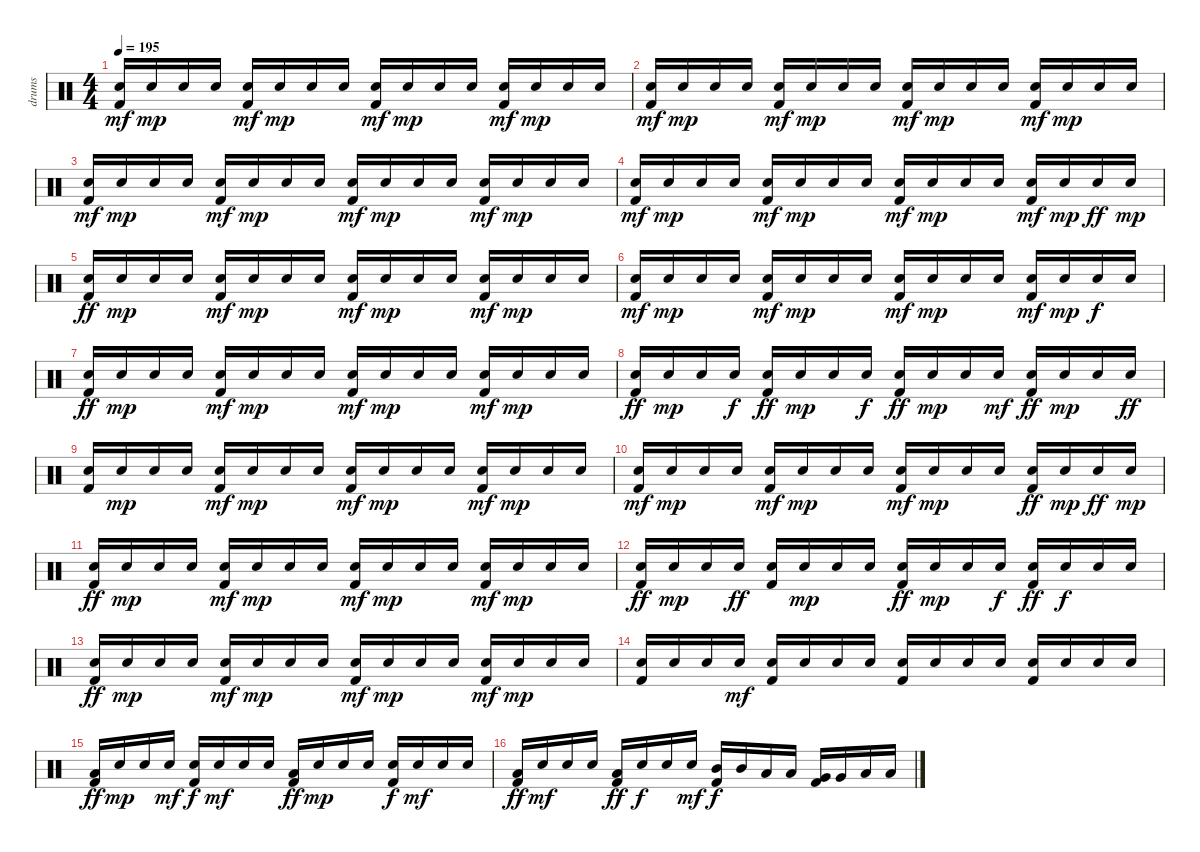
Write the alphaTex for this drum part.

\track ("drums" "drums") {instrument percussion}
\staff {score}
\articulation defaults
\ts (4 4)
\tempo 195
\clef neutral
\ks c
("Electric Snare (hit)" "Kick (hit) 2").16{dy mf} "Electric Snare (hit)".16{dy mp} "Electric Snare (hit)".16 "Electric Snare (hit)".16 ("Electric Snare (hit)" "Kick (hit) 2").16{dy mf} "Electric Snare (hit)".16{dy mp} "Electric Snare (hit)".16 "Electric Snare (hit)".16 ("Electric Snare (hit)" "Kick (hit) 2").16{dy mf} "Electric Snare (hit)".16{dy mp} "Electric Snare (hit)".16 "Electric Snare (hit)".16 ("Electric Snare (hit)" "Kick (hit) 2").16{dy mf} "Electric Snare (hit)".16{dy mp} "Electric Snare (hit)".16 "Electric Snare (hit)".16 |
("Electric Snare (hit)" "Kick (hit) 2").16{dy mf} "Electric Snare (hit)".16{dy mp} "Electric Snare (hit)".16 "Electric Snare (hit)".16 ("Electric Snare (hit)" "Kick (hit) 2").16{dy mf} "Electric Snare (hit)".16{dy mp} "Electric Snare (hit)".16 "Electric Snare (hit)".16 ("Electric Snare (hit)" "Kick (hit) 2").16{dy mf} "Electric Snare (hit)".16{dy mp} "Electric Snare (hit)".16 "Electric Snare (hit)".16 ("Electric Snare (hit)" "Kick (hit) 2").16{dy mf} "Electric Snare (hit)".16{dy mp} "Electric Snare (hit)".16 "Electric Snare (hit)".16 |
("Electric Snare (hit)" "Kick (hit) 2").16{dy mf} "Electric Snare (hit)".16{dy mp} "Electric Snare (hit)".16 "Electric Snare (hit)".16 ("Electric Snare (hit)" "Kick (hit) 2").16{dy mf} "Electric Snare (hit)".16{dy mp} "Electric Snare (hit)".16 "Electric Snare (hit)".16 ("Electric Snare (hit)" "Kick (hit) 2").16{dy mf} "Electric Snare (hit)".16{dy mp} "Electric Snare (hit)".16 "Electric Snare (hit)".16 ("Electric Snare (hit)" "Kick (hit) 2").16{dy mf} "Electric Snare (hit)".16{dy mp} "Electric Snare (hit)".16 "Electric Snare (hit)".16 |
("Electric Snare (hit)" "Kick (hit) 2").16{dy mf} "Electric Snare (hit)".16{dy mp} "Electric Snare (hit)".16 "Electric Snare (hit)".16 ("Electric Snare (hit)" "Kick (hit) 2").16{dy mf} "Electric Snare (hit)".16{dy mp} "Electric Snare (hit)".16 "Electric Snare (hit)".16 ("Electric Snare (hit)" "Kick (hit) 2").16{dy mf} "Electric Snare (hit)".16{dy mp} "Electric Snare (hit)".16 "Electric Snare (hit)".16 ("Electric Snare (hit)" "Kick (hit) 2").16{dy mf} "Electric Snare (hit)".16{dy mp} "Electric Snare (hit)".16{dy ff} "Electric Snare (hit)".16{dy mp} |
("Electric Snare (hit)" "Kick (hit) 2").16{dy ff} "Electric Snare (hit)".16{dy mp} "Electric Snare (hit)".16 "Electric Snare (hit)".16 ("Electric Snare (hit)" "Kick (hit) 2").16{dy mf} "Electric Snare (hit)".16{dy mp} "Electric Snare (hit)".16 "Electric Snare (hit)".16 ("Electric Snare (hit)" "Kick (hit) 2").16{dy mf} "Electric Snare (hit)".16{dy mp} "Electric Snare (hit)".16 "Electric Snare (hit)".16 ("Electric Snare (hit)" "Kick (hit) 2").16{dy mf} "Electric Snare (hit)".16{dy mp} "Electric Snare (hit)".16 "Electric Snare (hit)".16 |
("Electric Snare (hit)" "Kick (hit) 2").16{dy mf} "Electric Snare (hit)".16{dy mp} "Electric Snare (hit)".16 "Electric Snare (hit)".16 ("Electric Snare (hit)" "Kick (hit) 2").16{dy mf} "Electric Snare (hit)".16{dy mp} "Electric Snare (hit)".16 "Electric Snare (hit)".16 ("Electric Snare (hit)" "Kick (hit) 2").16{dy mf} "Electric Snare (hit)".16{dy mp} "Electric Snare (hit)".16 "Electric Snare (hit)".16 ("Electric Snare (hit)" "Kick (hit) 2").16{dy mf} "Electric Snare (hit)".16{dy mp} "Electric Snare (hit)".16{dy f} "Electric Snare (hit)".16 |
("Electric Snare (hit)" "Kick (hit) 2").16{dy ff} "Electric Snare (hit)".16{dy mp} "Electric Snare (hit)".16 "Electric Snare (hit)".16 ("Electric Snare (hit)" "Kick (hit) 2").16{dy mf} "Electric Snare (hit)".16{dy mp} "Electric Snare (hit)".16 "Electric Snare (hit)".16 ("Electric Snare (hit)" "Kick (hit) 2").16{dy mf} "Electric Snare (hit)".16{dy mp} "Electric Snare (hit)".16 "Electric Snare (hit)".16 ("Electric Snare (hit)" "Kick (hit) 2").16{dy mf} "Electric Snare (hit)".16{dy mp} "Electric Snare (hit)".16 "Electric Snare (hit)".16 |
("Electric Snare (hit)" "Kick (hit) 2").16{dy ff} "Electric Snare (hit)".16{dy mp} "Electric Snare (hit)".16 "Electric Snare (hit)".16{dy f} ("Electric Snare (hit)" "Kick (hit) 2").16{dy ff} "Electric Snare (hit)".16{dy mp} "Electric Snare (hit)".16 "Electric Snare (hit)".16{dy f} ("Electric Snare (hit)" "Kick (hit) 2").16{dy ff} "Electric Snare (hit)".16{dy mp} "Electric Snare (hit)".16 "Electric Snare (hit)".16{dy mf} ("Electric Snare (hit)" "Kick (hit) 2").16{dy ff} "Electric Snare (hit)".16{dy mp} "Electric Snare (hit)".16 "Electric Snare (hit)".16{dy ff} |
("Electric Snare (hit)" "Kick (hit) 2").16 "Electric Snare (hit)".16{dy mp} "Electric Snare (hit)".16 "Electric Snare (hit)".16 ("Electric Snare (hit)" "Kick (hit) 2").16{dy mf} "Electric Snare (hit)".16{dy mp} "Electric Snare (hit)".16 "Electric Snare (hit)".16 ("Electric Snare (hit)" "Kick (hit) 2").16{dy mf} "Electric Snare (hit)".16{dy mp} "Electric Snare (hit)".16 "Electric Snare (hit)".16 ("Electric Snare (hit)" "Kick (hit) 2").16{dy mf} "Electric Snare (hit)".16{dy mp} "Electric Snare (hit)".16 "Electric Snare (hit)".16 |
("Electric Snare (hit)" "Kick (hit) 2").16{dy mf} "Electric Snare (hit)".16{dy mp} "Electric Snare (hit)".16 "Electric Snare (hit)".16 ("Electric Snare (hit)" "Kick (hit) 2").16{dy mf} "Electric Snare (hit)".16{dy mp} "Electric Snare (hit)".16 "Electric Snare (hit)".16 ("Electric Snare (hit)" "Kick (hit) 2").16{dy mf} "Electric Snare (hit)".16{dy mp} "Electric Snare (hit)".16 "Electric Snare (hit)".16 ("Electric Snare (hit)" "Kick (hit) 2").16{dy ff} "Electric Snare (hit)".16{dy mp} "Electric Snare (hit)".16{dy ff} "Electric Snare (hit)".16{dy mp} |
("Electric Snare (hit)" "Kick (hit) 2").16{dy ff} "Electric Snare (hit)".16{dy mp} "Electric Snare (hit)".16 "Electric Snare (hit)".16 ("Electric Snare (hit)" "Kick (hit) 2").16{dy mf} "Electric Snare (hit)".16{dy mp} "Electric Snare (hit)".16 "Electric Snare (hit)".16 ("Electric Snare (hit)" "Kick (hit) 2").16{dy mf} "Electric Snare (hit)".16{dy mp} "Electric Snare (hit)".16 "Electric Snare (hit)".16 ("Electric Snare (hit)" "Kick (hit) 2").16{dy mf} "Electric Snare (hit)".16{dy mp} "Electric Snare (hit)".16 "Electric Snare (hit)".16 |
("Electric Snare (hit)" "Kick (hit) 2").16{dy ff} "Electric Snare (hit)".16{dy mp} "Electric Snare (hit)".16 "Electric Snare (hit)".16{dy ff} ("Electric Snare (hit)" "Kick (hit) 2").16 "Electric Snare (hit)".16{dy mp} "Electric Snare (hit)".16 "Electric Snare (hit)".16 ("Electric Snare (hit)" "Kick (hit) 2").16{dy ff} "Electric Snare (hit)".16{dy mp} "Electric Snare (hit)".16 "Electric Snare (hit)".16{dy f} ("Electric Snare (hit)" "Kick (hit) 2").16{dy ff} "Electric Snare (hit)".16{dy f} "Electric Snare (hit)".16 "Electric Snare (hit)".16 |
("Electric Snare (hit)" "Kick (hit) 2").16{dy ff} "Electric Snare (hit)".16{dy mp} "Electric Snare (hit)".16 "Electric Snare (hit)".16 ("Electric Snare (hit)" "Kick (hit) 2").16{dy mf} "Electric Snare (hit)".16{dy mp} "Electric Snare (hit)".16 "Electric Snare (hit)".16 ("Electric Snare (hit)" "Kick (hit) 2").16{dy mf} "Electric Snare (hit)".16{dy mp} "Electric Snare (hit)".16 "Electric Snare (hit)".16 ("Electric Snare (hit)" "Kick (hit) 2").16{dy mf} "Electric Snare (hit)".16{dy mp} "Electric Snare (hit)".16 "Electric Snare (hit)".16 |
("Electric Snare (hit)" "Kick (hit) 2").16 "Electric Snare (hit)".16 "Electric Snare (hit)".16 "Electric Snare (hit)".16{dy mf} ("Electric Snare (hit)" "Kick (hit) 2").16 "Electric Snare (hit)".16 "Electric Snare (hit)".16 "Electric Snare (hit)".16 ("Electric Snare (hit)" "Kick (hit) 2").16 "Electric Snare (hit)".16 "Electric Snare (hit)".16 "Electric Snare (hit)".16 ("Electric Snare (hit)" "Kick (hit) 2").16 "Electric Snare (hit)".16 "Electric Snare (hit)".16 "Electric Snare (hit)".16 |
("Low Tom (hit)" "Kick (hit) 2").16{dy ff} "Electric Snare (hit)".16{dy mp} "Electric Snare (hit)".16 "Electric Snare (hit)".16{dy mf} ("Electric Snare (hit)" "Kick (hit) 2").16{dy f} "Electric Snare (hit)".16{dy mf} "Electric Snare (hit)".16 "Electric Snare (hit)".16 ("Low Tom (hit)" "Kick (hit) 2").16{dy ff} "Electric Snare (hit)".16{dy mp} "Electric Snare (hit)".16 "Electric Snare (hit)".16 ("Electric Snare (hit)" "Kick (hit) 2").16{dy f} "Electric Snare (hit)".16{dy mf} "Electric Snare (hit)".16 "Electric Snare (hit)".16 |
("Low Tom (hit)" "Kick (hit) 2").16{dy ff} "Electric Snare (hit)".16{dy mf} "Electric Snare (hit)".16 "Electric Snare (hit)".16 ("Low Tom (hit)" "Kick (hit) 2").16{dy ff} "Electric Snare (hit)".16{dy f} "Electric Snare (hit)".16 "Electric Snare (hit)".16{dy mf} ("Mid Tom (hit)" "Kick (hit) 2").16{dy f} "Mid Tom (hit)".16 "Low Tom (hit)".16 "Low Tom (hit)".16 ("Very Low Tom (hit)" "Kick (hit) 2").16 "Very Low Tom (hit)".16 "Low Floor Tom (hit)".16 "Low Floor Tom (hit)".16
